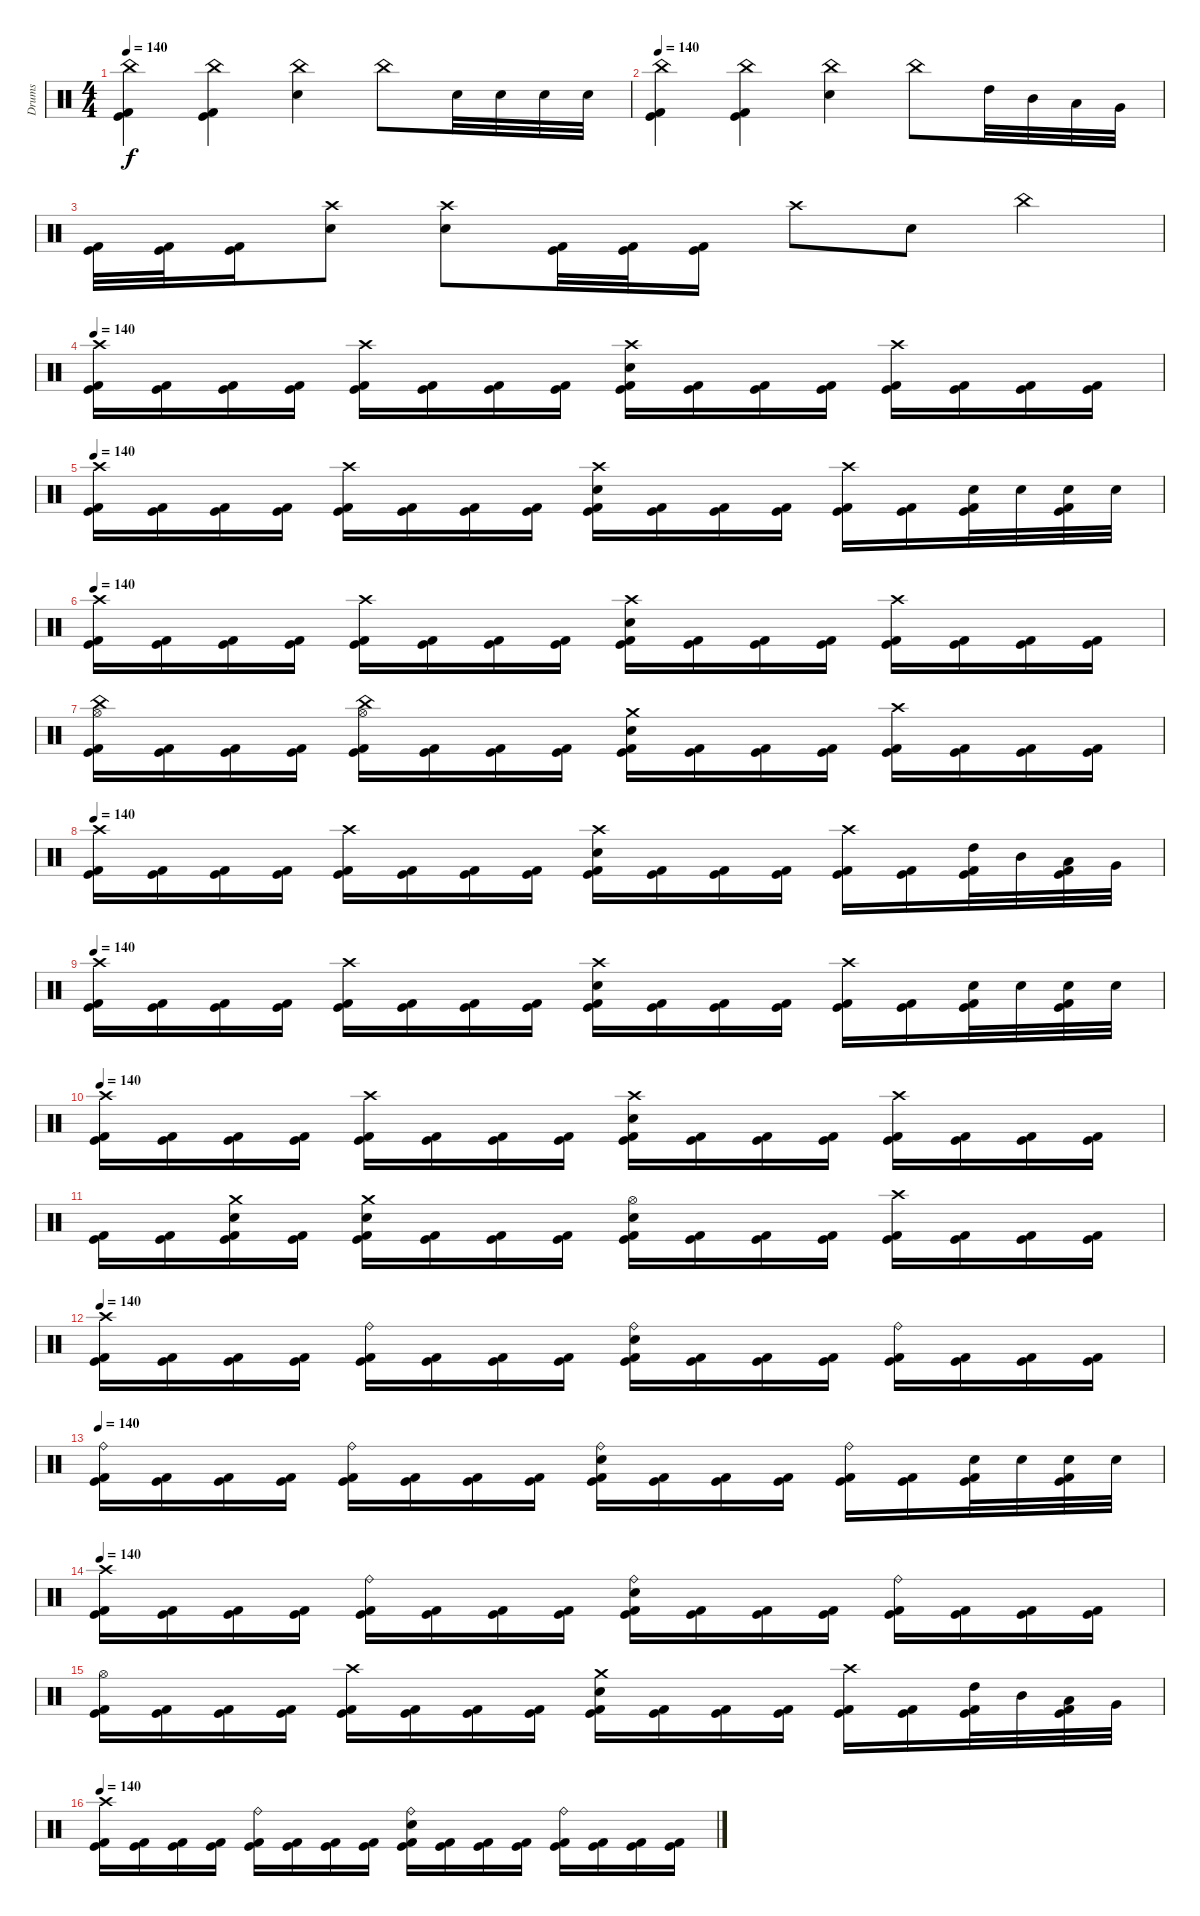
\track ("Drums" "Drums") {instrument percussion}
\staff {score}
\articulation defaults
\ts (4 4)
\tempo 140
\clef neutral
\ks c
("China (hit)" "Kick (hit)" "Kick (hit) 2").4{dy f} ("China (hit)" "Kick (hit)" "Kick (hit) 2").4 ("China (hit)" "Electric Snare (hit)").4 "China (hit)".8 "Electric Snare (hit)".32 "Electric Snare (hit)".32 "Electric Snare (hit)".32 "Electric Snare (hit)".32 |
\tempo 140
("China (hit)" "Kick (hit)" "Kick (hit) 2").4 ("China (hit)" "Kick (hit)" "Kick (hit) 2").4 ("China (hit)" "Electric Snare (hit)").4 "China (hit)".8 "High Tom (hit)".32 "Mid Tom (hit)".32 "Low Tom (hit)".32 "Very Low Tom (hit)".32 |
("Kick (hit)" "Kick (hit) 2").32 ("Kick (hit)" "Kick (hit) 2").32 ("Kick (hit)" "Kick (hit) 2").16 ("Crash high (hit)" "Electric Snare (hit)").8 ("Crash high (hit)" "Electric Snare (hit)").8 ("Kick (hit)" "Kick (hit) 2").32 ("Kick (hit)" "Kick (hit) 2").32 ("Kick (hit)" "Kick (hit) 2").16 "Crash high (hit)".8 "Electric Snare (hit)".8 "China (hit)".4 |
\tempo 140
("Crash high (hit)" "Kick (hit)" "Kick (hit) 2").16 ("Kick (hit)" "Kick (hit) 2").16 ("Kick (hit)" "Kick (hit) 2").16 ("Kick (hit)" "Kick (hit) 2").16 ("Crash high (hit)" "Kick (hit)" "Kick (hit) 2").16 ("Kick (hit)" "Kick (hit) 2").16 ("Kick (hit)" "Kick (hit) 2").16 ("Kick (hit)" "Kick (hit) 2").16 ("Crash high (hit)" "Electric Snare (hit)" "Kick (hit)" "Kick (hit) 2").16 ("Kick (hit)" "Kick (hit) 2").16 ("Kick (hit)" "Kick (hit) 2").16 ("Kick (hit)" "Kick (hit) 2").16 ("Crash high (hit)" "Kick (hit)" "Kick (hit) 2").16 ("Kick (hit)" "Kick (hit) 2").16 ("Kick (hit)" "Kick (hit) 2").16 ("Kick (hit)" "Kick (hit) 2").16 |
\tempo 140
("Crash high (hit)" "Kick (hit)" "Kick (hit) 2").16 ("Kick (hit)" "Kick (hit) 2").16 ("Kick (hit)" "Kick (hit) 2").16 ("Kick (hit)" "Kick (hit) 2").16 ("Crash high (hit)" "Kick (hit)" "Kick (hit) 2").16 ("Kick (hit)" "Kick (hit) 2").16 ("Kick (hit)" "Kick (hit) 2").16 ("Kick (hit)" "Kick (hit) 2").16 ("Crash high (hit)" "Electric Snare (hit)" "Kick (hit)" "Kick (hit) 2").16 ("Kick (hit)" "Kick (hit) 2").16 ("Kick (hit)" "Kick (hit) 2").16 ("Kick (hit)" "Kick (hit) 2").16 ("Crash high (hit)" "Kick (hit)" "Kick (hit) 2").16 ("Kick (hit)" "Kick (hit) 2").16 ("Electric Snare (hit)" "Kick (hit)" "Kick (hit) 2").32 "Electric Snare (hit)".32 ("Electric Snare (hit)" "Kick (hit)" "Kick (hit) 2").32 "Electric Snare (hit)".32 |
\tempo 140
("Crash high (hit)" "Kick (hit)" "Kick (hit) 2").16 ("Kick (hit)" "Kick (hit) 2").16 ("Kick (hit)" "Kick (hit) 2").16 ("Kick (hit)" "Kick (hit) 2").16 ("Crash high (hit)" "Kick (hit)" "Kick (hit) 2").16 ("Kick (hit)" "Kick (hit) 2").16 ("Kick (hit)" "Kick (hit) 2").16 ("Kick (hit)" "Kick (hit) 2").16 ("Crash high (hit)" "Electric Snare (hit)" "Kick (hit)" "Kick (hit) 2").16 ("Kick (hit)" "Kick (hit) 2").16 ("Kick (hit)" "Kick (hit) 2").16 ("Kick (hit)" "Kick (hit) 2").16 ("Crash high (hit)" "Kick (hit)" "Kick (hit) 2").16 ("Kick (hit)" "Kick (hit) 2").16 ("Kick (hit)" "Kick (hit) 2").16 ("Kick (hit)" "Kick (hit) 2").16 |
("China (hit)" "Hi-Hat (open)" "Kick (hit)" "Kick (hit) 2").16 ("Kick (hit)" "Kick (hit) 2").16 ("Kick (hit)" "Kick (hit) 2").16 ("Kick (hit)" "Kick (hit) 2").16 ("China (hit)" "Hi-Hat (open)" "Kick (hit)" "Kick (hit) 2").16 ("Kick (hit)" "Kick (hit) 2").16 ("Kick (hit)" "Kick (hit) 2").16 ("Kick (hit)" "Kick (hit) 2").16 ("Crash medium (hit)" "Electric Snare (hit)" "Kick (hit)" "Kick (hit) 2").16 ("Kick (hit)" "Kick (hit) 2").16 ("Kick (hit)" "Kick (hit) 2").16 ("Kick (hit)" "Kick (hit) 2").16 ("Crash high (hit)" "Kick (hit)" "Kick (hit) 2").16 ("Kick (hit)" "Kick (hit) 2").16 ("Kick (hit)" "Kick (hit) 2").16 ("Kick (hit)" "Kick (hit) 2").16 |
\tempo 140
("Crash high (hit)" "Kick (hit)" "Kick (hit) 2").16 ("Kick (hit)" "Kick (hit) 2").16 ("Kick (hit)" "Kick (hit) 2").16 ("Kick (hit)" "Kick (hit) 2").16 ("Crash high (hit)" "Kick (hit)" "Kick (hit) 2").16 ("Kick (hit)" "Kick (hit) 2").16 ("Kick (hit)" "Kick (hit) 2").16 ("Kick (hit)" "Kick (hit) 2").16 ("Crash high (hit)" "Electric Snare (hit)" "Kick (hit)" "Kick (hit) 2").16 ("Kick (hit)" "Kick (hit) 2").16 ("Kick (hit)" "Kick (hit) 2").16 ("Kick (hit)" "Kick (hit) 2").16 ("Crash high (hit)" "Kick (hit)" "Kick (hit) 2").16 ("Kick (hit)" "Kick (hit) 2").16 ("High Tom (hit)" "Kick (hit)" "Kick (hit) 2").32 "Mid Tom (hit)".32 ("Low Tom (hit)" "Kick (hit)" "Kick (hit) 2").32 "Very Low Tom (hit)".32 |
\tempo 140
("Crash high (hit)" "Kick (hit)" "Kick (hit) 2").16 ("Kick (hit)" "Kick (hit) 2").16 ("Kick (hit)" "Kick (hit) 2").16 ("Kick (hit)" "Kick (hit) 2").16 ("Crash high (hit)" "Kick (hit)" "Kick (hit) 2").16 ("Kick (hit)" "Kick (hit) 2").16 ("Kick (hit)" "Kick (hit) 2").16 ("Kick (hit)" "Kick (hit) 2").16 ("Crash high (hit)" "Electric Snare (hit)" "Kick (hit)" "Kick (hit) 2").16 ("Kick (hit)" "Kick (hit) 2").16 ("Kick (hit)" "Kick (hit) 2").16 ("Kick (hit)" "Kick (hit) 2").16 ("Crash high (hit)" "Kick (hit)" "Kick (hit) 2").16 ("Kick (hit)" "Kick (hit) 2").16 ("Electric Snare (hit)" "Kick (hit)" "Kick (hit) 2").32 "Electric Snare (hit)".32 ("Electric Snare (hit)" "Kick (hit)" "Kick (hit) 2").32 "Electric Snare (hit)".32 |
\tempo 140
("Crash high (hit)" "Kick (hit)" "Kick (hit) 2").16 ("Kick (hit)" "Kick (hit) 2").16 ("Kick (hit)" "Kick (hit) 2").16 ("Kick (hit)" "Kick (hit) 2").16 ("Crash high (hit)" "Kick (hit)" "Kick (hit) 2").16 ("Kick (hit)" "Kick (hit) 2").16 ("Kick (hit)" "Kick (hit) 2").16 ("Kick (hit)" "Kick (hit) 2").16 ("Crash high (hit)" "Electric Snare (hit)" "Kick (hit)" "Kick (hit) 2").16 ("Kick (hit)" "Kick (hit) 2").16 ("Kick (hit)" "Kick (hit) 2").16 ("Kick (hit)" "Kick (hit) 2").16 ("Crash high (hit)" "Kick (hit)" "Kick (hit) 2").16 ("Kick (hit)" "Kick (hit) 2").16 ("Kick (hit)" "Kick (hit) 2").16 ("Kick (hit)" "Kick (hit) 2").16 |
("Kick (hit)" "Kick (hit) 2").16 ("Kick (hit)" "Kick (hit) 2").16 ("Crash medium (hit)" "Electric Snare (hit)" "Kick (hit)" "Kick (hit) 2").16 ("Kick (hit)" "Kick (hit) 2").16 ("Crash medium (hit)" "Electric Snare (hit)" "Kick (hit)" "Kick (hit) 2").16 ("Kick (hit)" "Kick (hit) 2").16 ("Kick (hit)" "Kick (hit) 2").16 ("Kick (hit)" "Kick (hit) 2").16 ("Hi-Hat (open)" "Electric Snare (hit)" "Kick (hit)" "Kick (hit) 2").16 ("Kick (hit)" "Kick (hit) 2").16 ("Kick (hit)" "Kick (hit) 2").16 ("Kick (hit)" "Kick (hit) 2").16 ("Crash high (hit)" "Kick (hit)" "Kick (hit) 2").16 ("Kick (hit)" "Kick (hit) 2").16 ("Kick (hit)" "Kick (hit) 2").16 ("Kick (hit)" "Kick (hit) 2").16 |
\tempo 140
("Crash high (hit)" "Kick (hit)" "Kick (hit) 2").16 ("Kick (hit)" "Kick (hit) 2").16 ("Kick (hit)" "Kick (hit) 2").16 ("Kick (hit)" "Kick (hit) 2").16 ("Ride (bell)" "Kick (hit)" "Kick (hit) 2").16 ("Kick (hit)" "Kick (hit) 2").16 ("Kick (hit)" "Kick (hit) 2").16 ("Kick (hit)" "Kick (hit) 2").16 ("Ride (bell)" "Electric Snare (hit)" "Kick (hit)" "Kick (hit) 2").16 ("Kick (hit)" "Kick (hit) 2").16 ("Kick (hit)" "Kick (hit) 2").16 ("Kick (hit)" "Kick (hit) 2").16 ("Ride (bell)" "Kick (hit)" "Kick (hit) 2").16 ("Kick (hit)" "Kick (hit) 2").16 ("Kick (hit)" "Kick (hit) 2").16 ("Kick (hit)" "Kick (hit) 2").16 |
\tempo 140
("Ride (bell)" "Kick (hit)" "Kick (hit) 2").16 ("Kick (hit)" "Kick (hit) 2").16 ("Kick (hit)" "Kick (hit) 2").16 ("Kick (hit)" "Kick (hit) 2").16 ("Ride (bell)" "Kick (hit)" "Kick (hit) 2").16 ("Kick (hit)" "Kick (hit) 2").16 ("Kick (hit)" "Kick (hit) 2").16 ("Kick (hit)" "Kick (hit) 2").16 ("Ride (bell)" "Electric Snare (hit)" "Kick (hit)" "Kick (hit) 2").16 ("Kick (hit)" "Kick (hit) 2").16 ("Kick (hit)" "Kick (hit) 2").16 ("Kick (hit)" "Kick (hit) 2").16 ("Ride (bell)" "Kick (hit)" "Kick (hit) 2").16 ("Kick (hit)" "Kick (hit) 2").16 ("Electric Snare (hit)" "Kick (hit)" "Kick (hit) 2").32 "Electric Snare (hit)".32 ("Electric Snare (hit)" "Kick (hit)" "Kick (hit) 2").32 "Electric Snare (hit)".32 |
\tempo 140
("Crash high (hit)" "Kick (hit)" "Kick (hit) 2").16 ("Kick (hit)" "Kick (hit) 2").16 ("Kick (hit)" "Kick (hit) 2").16 ("Kick (hit)" "Kick (hit) 2").16 ("Ride (bell)" "Kick (hit)" "Kick (hit) 2").16 ("Kick (hit)" "Kick (hit) 2").16 ("Kick (hit)" "Kick (hit) 2").16 ("Kick (hit)" "Kick (hit) 2").16 ("Ride (bell)" "Electric Snare (hit)" "Kick (hit)" "Kick (hit) 2").16 ("Kick (hit)" "Kick (hit) 2").16 ("Kick (hit)" "Kick (hit) 2").16 ("Kick (hit)" "Kick (hit) 2").16 ("Ride (bell)" "Kick (hit)" "Kick (hit) 2").16 ("Kick (hit)" "Kick (hit) 2").16 ("Kick (hit)" "Kick (hit) 2").16 ("Kick (hit)" "Kick (hit) 2").16 |
("Hi-Hat (open)" "Kick (hit)" "Kick (hit) 2").16 ("Kick (hit)" "Kick (hit) 2").16 ("Kick (hit)" "Kick (hit) 2").16 ("Kick (hit)" "Kick (hit) 2").16 ("Crash high (hit)" "Kick (hit)" "Kick (hit) 2").16 ("Kick (hit)" "Kick (hit) 2").16 ("Kick (hit)" "Kick (hit) 2").16 ("Kick (hit)" "Kick (hit) 2").16 ("Crash medium (hit)" "Electric Snare (hit)" "Kick (hit)" "Kick (hit) 2").16 ("Kick (hit)" "Kick (hit) 2").16 ("Kick (hit)" "Kick (hit) 2").16 ("Kick (hit)" "Kick (hit) 2").16 ("Crash high (hit)" "Kick (hit)" "Kick (hit) 2").16 ("Kick (hit)" "Kick (hit) 2").16 ("High Tom (hit)" "Kick (hit)" "Kick (hit) 2").32 "Mid Tom (hit)".32 ("Low Tom (hit)" "Kick (hit)" "Kick (hit) 2").32 "Very Low Tom (hit)".32 |
\tempo 140
("Crash high (hit)" "Kick (hit)" "Kick (hit) 2").16 ("Kick (hit)" "Kick (hit) 2").16 ("Kick (hit)" "Kick (hit) 2").16 ("Kick (hit)" "Kick (hit) 2").16 ("Ride (bell)" "Kick (hit)" "Kick (hit) 2").16 ("Kick (hit)" "Kick (hit) 2").16 ("Kick (hit)" "Kick (hit) 2").16 ("Kick (hit)" "Kick (hit) 2").16 ("Ride (bell)" "Electric Snare (hit)" "Kick (hit)" "Kick (hit) 2").16 ("Kick (hit)" "Kick (hit) 2").16 ("Kick (hit)" "Kick (hit) 2").16 ("Kick (hit)" "Kick (hit) 2").16 ("Ride (bell)" "Kick (hit)" "Kick (hit) 2").16 ("Kick (hit)" "Kick (hit) 2").16 ("Kick (hit)" "Kick (hit) 2").16 ("Kick (hit)" "Kick (hit) 2").16
